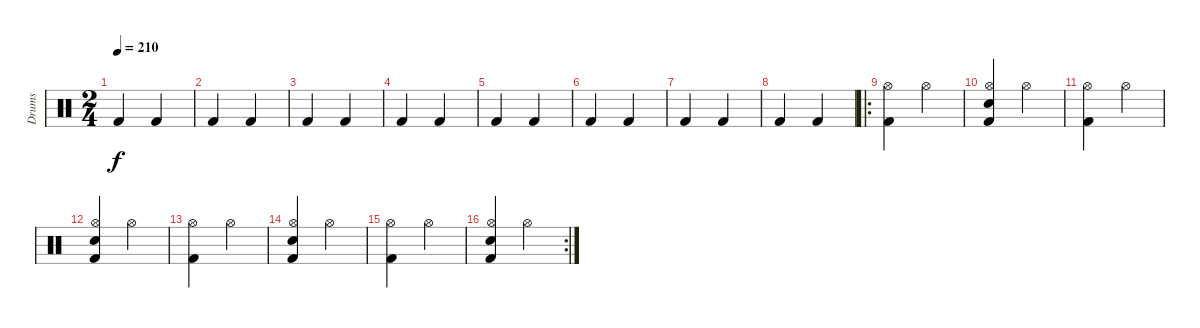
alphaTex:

\track ("Drums" "Drums") {instrument percussion}
\staff {score}
\articulation defaults
\ts (2 4)
\tempo 210
\clef neutral
\ks c "Kick (hit) 2".4{dy f} "Kick (hit) 2".4
|
"Kick (hit) 2".4 "Kick (hit) 2".4 |
"Kick (hit) 2".4 "Kick (hit) 2".4 |
"Kick (hit) 2".4 "Kick (hit) 2".4 |
"Kick (hit) 2".4 "Kick (hit) 2".4 |
"Kick (hit) 2".4 "Kick (hit) 2".4 |
"Kick (hit) 2".4 "Kick (hit) 2".4 |
"Kick (hit) 2".4 "Kick (hit) 2".4 |
\ro
("Hi-Hat (open)" "Kick (hit) 2").4 "Hi-Hat (open)".4 |
("Hi-Hat (open)" "Electric Snare (hit)" "Kick (hit) 2").4 "Hi-Hat (open)".4 |
("Hi-Hat (open)" "Kick (hit) 2").4 "Hi-Hat (open)".4 |
("Hi-Hat (open)" "Electric Snare (hit)" "Kick (hit) 2").4 "Hi-Hat (open)".4 |
("Hi-Hat (open)" "Kick (hit) 2").4 "Hi-Hat (open)".4 |
("Hi-Hat (open)" "Electric Snare (hit)" "Kick (hit) 2").4 "Hi-Hat (open)".4 |
("Hi-Hat (open)" "Kick (hit) 2").4 "Hi-Hat (open)".4 |
\rc 2
("Hi-Hat (open)" "Electric Snare (hit)" "Kick (hit) 2").4 "Hi-Hat (open)".4
